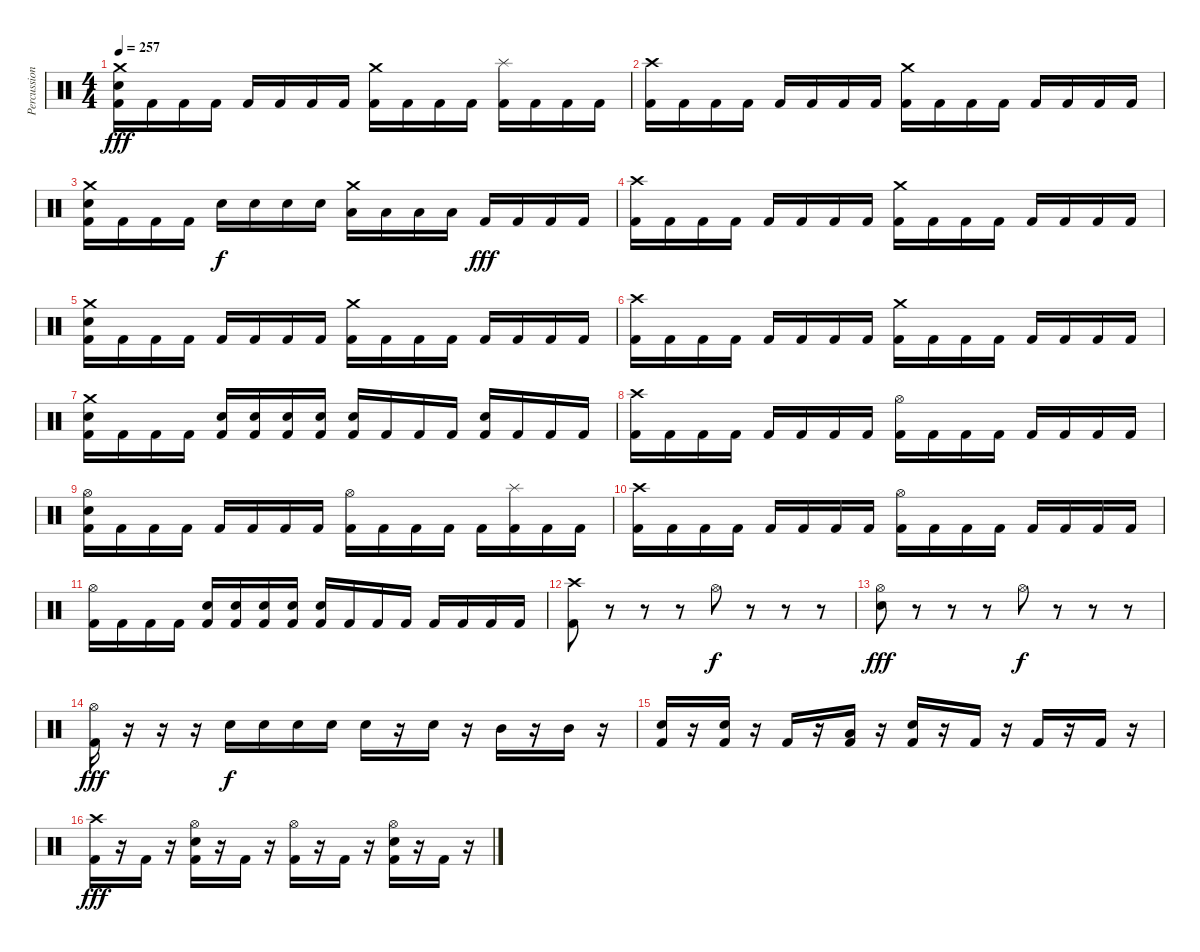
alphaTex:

\track ("Percussion" "Percussion") {instrument percussion}
\staff {score}
\articulation defaults
\ts (4 4)
\tempo 257
\clef neutral
\ks c
("Crash medium (hit)" "Electric Snare (hit)" "Kick (hit) 2").16{dy fff} "Kick (hit) 2".16 "Kick (hit) 2".16 "Kick (hit) 2".16 "Kick (hit) 2".16 "Kick (hit) 2".16 "Kick (hit) 2".16 "Kick (hit) 2".16 ("Crash medium (hit)" "Kick (hit) 2").16 "Kick (hit) 2".16 "Kick (hit) 2".16 "Kick (hit) 2".16 ("Splash (hit)" "Kick (hit) 2").16 "Kick (hit) 2".16 "Kick (hit) 2".16 "Kick (hit) 2".16 |
("Crash high (hit)" "Kick (hit) 2").16 "Kick (hit) 2".16 "Kick (hit) 2".16 "Kick (hit) 2".16 "Kick (hit) 2".16 "Kick (hit) 2".16 "Kick (hit) 2".16 "Kick (hit) 2".16 ("Crash medium (hit)" "Kick (hit) 2").16 "Kick (hit) 2".16 "Kick (hit) 2".16 "Kick (hit) 2".16 "Kick (hit) 2".16 "Kick (hit) 2".16 "Kick (hit) 2".16 "Kick (hit) 2".16 |
("Crash medium (hit)" "Electric Snare (hit)" "Kick (hit) 2").16 "Kick (hit) 2".16 "Kick (hit) 2".16 "Kick (hit) 2".16 "Electric Snare (hit)".16{dy f} "Electric Snare (hit)".16 "Electric Snare (hit)".16 "Electric Snare (hit)".16 ("Crash medium (hit)" "Low Tom (hit)").16 "Low Tom (hit)".16 "Low Tom (hit)".16 "Low Tom (hit)".16 "Kick (hit) 2".16{dy fff} "Kick (hit) 2".16 "Kick (hit) 2".16 "Kick (hit) 2".16 |
("Crash high (hit)" "Kick (hit) 2").16 "Kick (hit) 2".16 "Kick (hit) 2".16 "Kick (hit) 2".16 "Kick (hit) 2".16 "Kick (hit) 2".16 "Kick (hit) 2".16 "Kick (hit) 2".16 ("Crash medium (hit)" "Kick (hit) 2").16 "Kick (hit) 2".16 "Kick (hit) 2".16 "Kick (hit) 2".16 "Kick (hit) 2".16 "Kick (hit) 2".16 "Kick (hit) 2".16 "Kick (hit) 2".16 |
("Crash medium (hit)" "Electric Snare (hit)" "Kick (hit) 2").16 "Kick (hit) 2".16 "Kick (hit) 2".16 "Kick (hit) 2".16 "Kick (hit) 2".16 "Kick (hit) 2".16 "Kick (hit) 2".16 "Kick (hit) 2".16 ("Crash medium (hit)" "Kick (hit) 2").16 "Kick (hit) 2".16 "Kick (hit) 2".16 "Kick (hit) 2".16 "Kick (hit) 2".16 "Kick (hit) 2".16 "Kick (hit) 2".16 "Kick (hit) 2".16 |
("Crash high (hit)" "Kick (hit) 2").16 "Kick (hit) 2".16 "Kick (hit) 2".16 "Kick (hit) 2".16 "Kick (hit) 2".16 "Kick (hit) 2".16 "Kick (hit) 2".16 "Kick (hit) 2".16 ("Crash medium (hit)" "Kick (hit) 2").16 "Kick (hit) 2".16 "Kick (hit) 2".16 "Kick (hit) 2".16 "Kick (hit) 2".16 "Kick (hit) 2".16 "Kick (hit) 2".16 "Kick (hit) 2".16 |
("Crash medium (hit)" "Electric Snare (hit)" "Kick (hit) 2").16 "Kick (hit) 2".16 "Kick (hit) 2".16 "Kick (hit) 2".16 ("Electric Snare (hit)" "Kick (hit) 2").16 ("Electric Snare (hit)" "Kick (hit) 2").16 ("Electric Snare (hit)" "Kick (hit) 2").16 ("Electric Snare (hit)" "Kick (hit) 2").16 ("Electric Snare (hit)" "Kick (hit) 2").16 "Kick (hit) 2".16 "Kick (hit) 2".16 "Kick (hit) 2".16 ("Electric Snare (hit)" "Kick (hit) 2").16 "Kick (hit) 2".16 "Kick (hit) 2".16 "Kick (hit) 2".16 |
("Crash high (hit)" "Kick (hit) 2").16 "Kick (hit) 2".16 "Kick (hit) 2".16 "Kick (hit) 2".16 "Kick (hit) 2".16 "Kick (hit) 2".16 "Kick (hit) 2".16 "Kick (hit) 2".16 ("Hi-Hat (open)" "Kick (hit) 2").16 "Kick (hit) 2".16 "Kick (hit) 2".16 "Kick (hit) 2".16 "Kick (hit) 2".16 "Kick (hit) 2".16 "Kick (hit) 2".16 "Kick (hit) 2".16 |
("Hi-Hat (open)" "Electric Snare (hit)" "Kick (hit) 2").16 "Kick (hit) 2".16 "Kick (hit) 2".16 "Kick (hit) 2".16 "Kick (hit) 2".16 "Kick (hit) 2".16 "Kick (hit) 2".16 "Kick (hit) 2".16 ("Hi-Hat (open)" "Kick (hit) 2").16 "Kick (hit) 2".16 "Kick (hit) 2".16 "Kick (hit) 2".16 "Kick (hit) 2".16 ("Splash (hit)" "Kick (hit) 2").16 "Kick (hit) 2".16 "Kick (hit) 2".16 |
("Crash high (hit)" "Kick (hit) 2").16 "Kick (hit) 2".16 "Kick (hit) 2".16 "Kick (hit) 2".16 "Kick (hit) 2".16 "Kick (hit) 2".16 "Kick (hit) 2".16 "Kick (hit) 2".16 ("Hi-Hat (open)" "Kick (hit) 2").16 "Kick (hit) 2".16 "Kick (hit) 2".16 "Kick (hit) 2".16 "Kick (hit) 2".16 "Kick (hit) 2".16 "Kick (hit) 2".16 "Kick (hit) 2".16 |
("Hi-Hat (open)" "Kick (hit) 2").16 "Kick (hit) 2".16 "Kick (hit) 2".16 "Kick (hit) 2".16 ("Electric Snare (hit)" "Kick (hit) 2").16 ("Electric Snare (hit)" "Kick (hit) 2").16 ("Electric Snare (hit)" "Kick (hit) 2").16 ("Electric Snare (hit)" "Kick (hit) 2").16 ("Electric Snare (hit)" "Kick (hit) 2").16 "Kick (hit) 2".16 "Kick (hit) 2".16 "Kick (hit) 2".16 "Kick (hit) 2".16 "Kick (hit) 2".16 "Kick (hit) 2".16 "Kick (hit) 2".16 |
("Crash high (hit)" "Kick (hit) 2").8 r.8 r.8 r.8 "Hi-Hat (open)".8{dy f} r.8 r.8 r.8 |
("Hi-Hat (open)" "Electric Snare (hit)").8{dy fff} r.8 r.8 r.8 "Hi-Hat (open)".8{dy f} r.8 r.8 r.8 |
("Hi-Hat (open)" "Kick (hit) 2").16{dy fff} r.16 r.16 r.16 "Electric Snare (hit)".16{dy f} "Electric Snare (hit)".16 "Electric Snare (hit)".16 "Electric Snare (hit)".16 "Electric Snare (hit)".16 r.16 "Electric Snare (hit)".16 r.16 "Mid Tom (hit)".16 r.16 "Mid Tom (hit)".16 r.16 |
("Electric Snare (hit)" "Kick (hit) 2").16 r.16 ("Electric Snare (hit)" "Kick (hit) 2").16 r.16 "Kick (hit) 2".16 r.16 ("Low Tom (hit)" "Kick (hit) 2").16 r.16 ("Electric Snare (hit)" "Kick (hit) 2").16 r.16 "Kick (hit) 2".16 r.16 "Kick (hit) 2".16 r.16 "Kick (hit) 2".16 r.16 |
("Crash high (hit)" "Kick (hit) 2").16{dy fff} r.16 "Kick (hit) 2".16 r.16 ("Hi-Hat (open)" "Electric Snare (hit)" "Kick (hit) 2").16 r.16 "Kick (hit) 2".16 r.16 ("Hi-Hat (open)" "Kick (hit) 2").16 r.16 "Kick (hit) 2".16 r.16 ("Hi-Hat (open)" "Electric Snare (hit)" "Kick (hit) 2").16 r.16 "Kick (hit) 2".16 r.16
